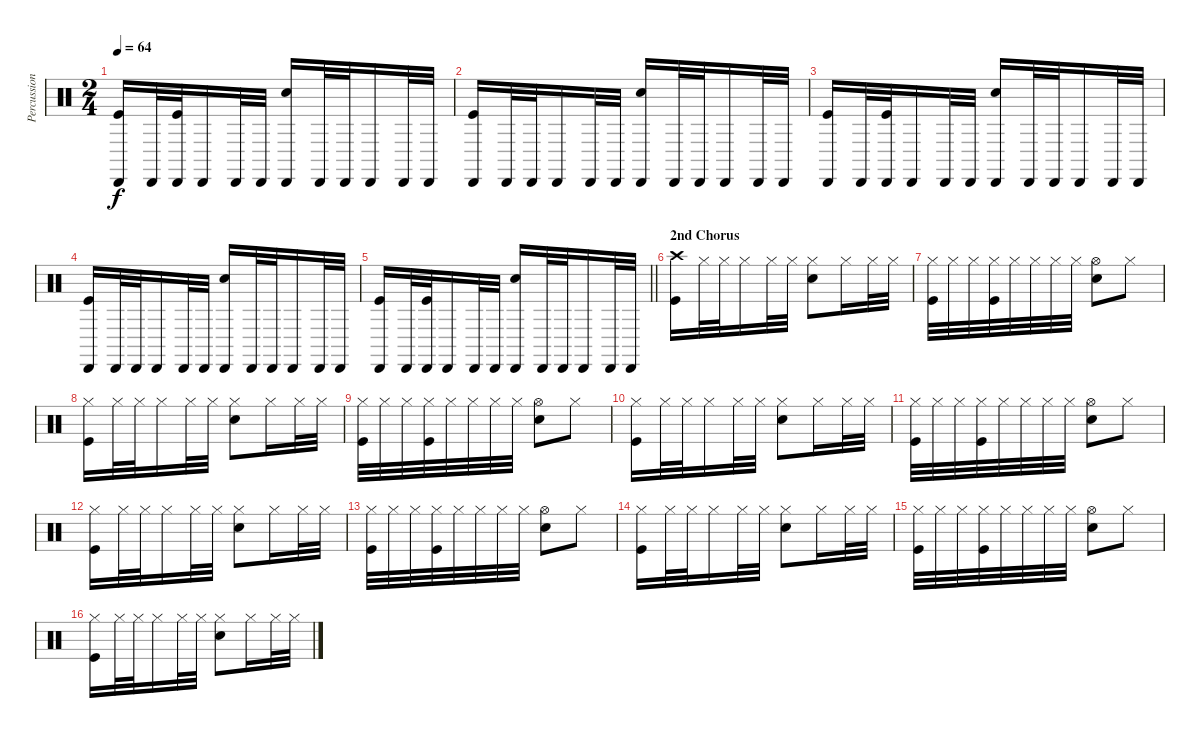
\track ("Percussion" "Percussion") {instrument percussion}
\staff {score}
\articulation defaults
\ts (2 4)
\tempo 64
\clef neutral
\ks c
("Cabasa (hit)" "Kick (hit)").16{dy f} "Cabasa (hit)".32 ("Cabasa (hit)" "Kick (hit)").32 "Cabasa (hit)".16 "Cabasa (hit)".32 "Cabasa (hit)".32 ("Cabasa (hit)" "Electric Snare (hit)").16 "Cabasa (hit)".32 "Cabasa (hit)".32 "Cabasa (hit)".16 "Cabasa (hit)".32 "Cabasa (hit)".32 |
("Cabasa (hit)" "Kick (hit)").16 "Cabasa (hit)".32 "Cabasa (hit)".32 "Cabasa (hit)".16 "Cabasa (hit)".32 "Cabasa (hit)".32 ("Cabasa (hit)" "Electric Snare (hit)").16 "Cabasa (hit)".32 "Cabasa (hit)".32 "Cabasa (hit)".16 "Cabasa (hit)".32 "Cabasa (hit)".32 |
("Cabasa (hit)" "Kick (hit)").16 "Cabasa (hit)".32 ("Cabasa (hit)" "Kick (hit)").32 "Cabasa (hit)".16 "Cabasa (hit)".32 "Cabasa (hit)".32 ("Cabasa (hit)" "Electric Snare (hit)").16 "Cabasa (hit)".32 "Cabasa (hit)".32 "Cabasa (hit)".16 "Cabasa (hit)".32 "Cabasa (hit)".32 |
("Cabasa (hit)" "Kick (hit)").16 "Cabasa (hit)".32 "Cabasa (hit)".32 "Cabasa (hit)".16 "Cabasa (hit)".32 "Cabasa (hit)".32 ("Cabasa (hit)" "Electric Snare (hit)").16 "Cabasa (hit)".32 "Cabasa (hit)".32 "Cabasa (hit)".16 "Cabasa (hit)".32 "Cabasa (hit)".32 |
\barLineRight lightlight
("Cabasa (hit)" "Kick (hit)").16 "Cabasa (hit)".32 ("Cabasa (hit)" "Kick (hit)").32 "Cabasa (hit)".16 "Cabasa (hit)".32 "Cabasa (hit)".32 ("Cabasa (hit)" "Electric Snare (hit)").16 "Cabasa (hit)".32 "Cabasa (hit)".32 "Cabasa (hit)".16 "Cabasa (hit)".32 "Cabasa (hit)".32 |
\section ("" "2nd Chorus")
("Crash high (hit)" "Kick (hit)").16 "Hi-Hat (closed)".32 "Hi-Hat (closed)".32 "Hi-Hat (closed)".16 "Hi-Hat (closed)".32 "Hi-Hat (closed)".32 ("Hi-Hat (closed)" "Electric Snare (hit)").8 "Hi-Hat (closed)".16 "Hi-Hat (closed)".32 "Hi-Hat (closed)".32 |
("Hi-Hat (closed)" "Kick (hit)").32 "Hi-Hat (closed)".32 "Hi-Hat (closed)".32 ("Hi-Hat (closed)" "Kick (hit)").32 "Hi-Hat (closed)".32 "Hi-Hat (closed)".32 "Hi-Hat (closed)".32 "Hi-Hat (closed)".32 ("Hi-Hat (open)" "Electric Snare (hit)").8 "Hi-Hat (closed)".8 |
("Hi-Hat (closed)" "Kick (hit)").16 "Hi-Hat (closed)".32 "Hi-Hat (closed)".32 "Hi-Hat (closed)".16 "Hi-Hat (closed)".32 "Hi-Hat (closed)".32 ("Hi-Hat (closed)" "Electric Snare (hit)").8 "Hi-Hat (closed)".16 "Hi-Hat (closed)".32 "Hi-Hat (closed)".32 |
("Hi-Hat (closed)" "Kick (hit)").32 "Hi-Hat (closed)".32 "Hi-Hat (closed)".32 ("Hi-Hat (closed)" "Kick (hit)").32 "Hi-Hat (closed)".32 "Hi-Hat (closed)".32 "Hi-Hat (closed)".32 "Hi-Hat (closed)".32 ("Hi-Hat (open)" "Electric Snare (hit)").8 "Hi-Hat (closed)".8 |
("Hi-Hat (closed)" "Kick (hit)").16 "Hi-Hat (closed)".32 "Hi-Hat (closed)".32 "Hi-Hat (closed)".16 "Hi-Hat (closed)".32 "Hi-Hat (closed)".32 ("Hi-Hat (closed)" "Electric Snare (hit)").8 "Hi-Hat (closed)".16 "Hi-Hat (closed)".32 "Hi-Hat (closed)".32 |
("Hi-Hat (closed)" "Kick (hit)").32 "Hi-Hat (closed)".32 "Hi-Hat (closed)".32 ("Hi-Hat (closed)" "Kick (hit)").32 "Hi-Hat (closed)".32 "Hi-Hat (closed)".32 "Hi-Hat (closed)".32 "Hi-Hat (closed)".32 ("Hi-Hat (open)" "Electric Snare (hit)").8 "Hi-Hat (closed)".8 |
("Hi-Hat (closed)" "Kick (hit)").16 "Hi-Hat (closed)".32 "Hi-Hat (closed)".32 "Hi-Hat (closed)".16 "Hi-Hat (closed)".32 "Hi-Hat (closed)".32 ("Hi-Hat (closed)" "Electric Snare (hit)").8 "Hi-Hat (closed)".16 "Hi-Hat (closed)".32 "Hi-Hat (closed)".32 |
("Hi-Hat (closed)" "Kick (hit)").32 "Hi-Hat (closed)".32 "Hi-Hat (closed)".32 ("Hi-Hat (closed)" "Kick (hit)").32 "Hi-Hat (closed)".32 "Hi-Hat (closed)".32 "Hi-Hat (closed)".32 "Hi-Hat (closed)".32 ("Hi-Hat (open)" "Electric Snare (hit)").8 "Hi-Hat (closed)".8 |
("Hi-Hat (closed)" "Kick (hit)").16 "Hi-Hat (closed)".32 "Hi-Hat (closed)".32 "Hi-Hat (closed)".16 "Hi-Hat (closed)".32 "Hi-Hat (closed)".32 ("Hi-Hat (closed)" "Electric Snare (hit)").8 "Hi-Hat (closed)".16 "Hi-Hat (closed)".32 "Hi-Hat (closed)".32 |
("Hi-Hat (closed)" "Kick (hit)").32 "Hi-Hat (closed)".32 "Hi-Hat (closed)".32 ("Hi-Hat (closed)" "Kick (hit)").32 "Hi-Hat (closed)".32 "Hi-Hat (closed)".32 "Hi-Hat (closed)".32 "Hi-Hat (closed)".32 ("Hi-Hat (open)" "Electric Snare (hit)").8 "Hi-Hat (closed)".8 |
("Hi-Hat (closed)" "Kick (hit)").16 "Hi-Hat (closed)".32 "Hi-Hat (closed)".32 "Hi-Hat (closed)".16 "Hi-Hat (closed)".32 "Hi-Hat (closed)".32 ("Hi-Hat (closed)" "Electric Snare (hit)").8 "Hi-Hat (closed)".16 "Hi-Hat (closed)".32 "Hi-Hat (closed)".32
